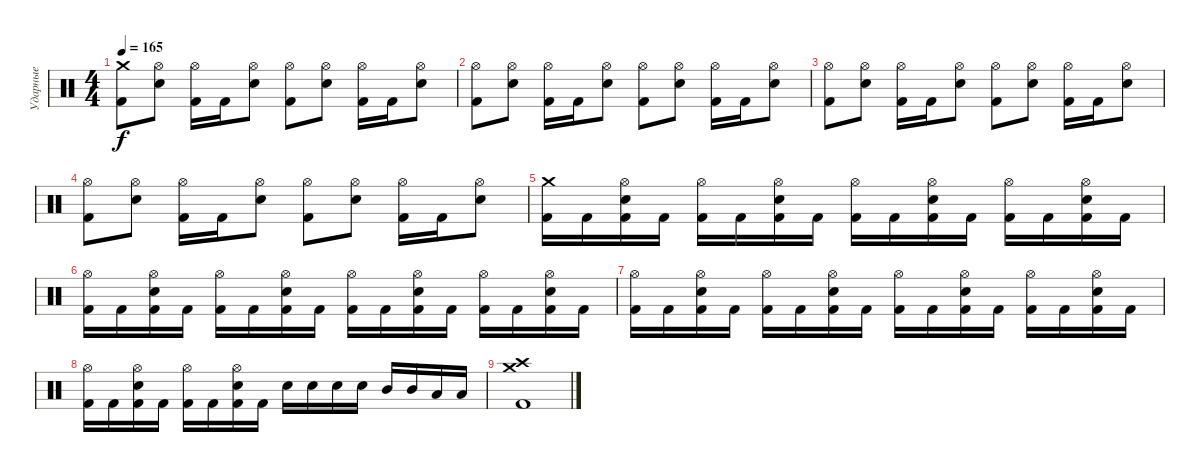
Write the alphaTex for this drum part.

\track ("Ударные" "Ударные") {instrument percussion}
\staff {score}
\articulation defaults
\ts (4 4)
\tempo 165
\clef neutral
\ks c
("Crash medium (hit)" "Kick (hit) 2").8{dy f} ("Hi-Hat (open)" "Electric Snare (hit)").8 ("Hi-Hat (open)" "Kick (hit) 2").16 "Kick (hit) 2".16 ("Hi-Hat (open)" "Electric Snare (hit)").8 ("Hi-Hat (open)" "Kick (hit) 2").8 ("Hi-Hat (open)" "Electric Snare (hit)").8 ("Hi-Hat (open)" "Kick (hit) 2").16 "Kick (hit) 2".16 ("Hi-Hat (open)" "Electric Snare (hit)").8 |
("Hi-Hat (open)" "Kick (hit) 2").8 ("Hi-Hat (open)" "Electric Snare (hit)").8 ("Hi-Hat (open)" "Kick (hit) 2").16 "Kick (hit) 2".16 ("Hi-Hat (open)" "Electric Snare (hit)").8 ("Hi-Hat (open)" "Kick (hit) 2").8 ("Hi-Hat (open)" "Electric Snare (hit)").8 ("Hi-Hat (open)" "Kick (hit) 2").16 "Kick (hit) 2".16 ("Hi-Hat (open)" "Electric Snare (hit)").8 |
("Hi-Hat (open)" "Kick (hit) 2").8 ("Hi-Hat (open)" "Electric Snare (hit)").8 ("Hi-Hat (open)" "Kick (hit) 2").16 "Kick (hit) 2".16 ("Hi-Hat (open)" "Electric Snare (hit)").8 ("Hi-Hat (open)" "Kick (hit) 2").8 ("Hi-Hat (open)" "Electric Snare (hit)").8 ("Hi-Hat (open)" "Kick (hit) 2").16 "Kick (hit) 2".16 ("Hi-Hat (open)" "Electric Snare (hit)").8 |
("Hi-Hat (open)" "Kick (hit) 2").8 ("Hi-Hat (open)" "Electric Snare (hit)").8 ("Hi-Hat (open)" "Kick (hit) 2").16 "Kick (hit) 2".16 ("Hi-Hat (open)" "Electric Snare (hit)").8 ("Hi-Hat (open)" "Kick (hit) 2").8 ("Hi-Hat (open)" "Electric Snare (hit)").8 ("Hi-Hat (open)" "Kick (hit) 2").16 "Kick (hit) 2".16 ("Hi-Hat (open)" "Electric Snare (hit)").8 |
("Kick (hit) 2" "Crash medium (hit)").16 "Kick (hit) 2".16 ("Kick (hit) 2" "Electric Snare (hit)" "Hi-Hat (open)").16 "Kick (hit) 2".16 ("Kick (hit) 2" "Hi-Hat (open)").16 "Kick (hit) 2".16 ("Kick (hit) 2" "Electric Snare (hit)" "Hi-Hat (open)").16 "Kick (hit) 2".16 ("Kick (hit) 2" "Hi-Hat (open)").16 "Kick (hit) 2".16 ("Kick (hit) 2" "Electric Snare (hit)" "Hi-Hat (open)").16 "Kick (hit) 2".16 ("Kick (hit) 2" "Hi-Hat (open)").16 "Kick (hit) 2".16 ("Kick (hit) 2" "Electric Snare (hit)" "Hi-Hat (open)").16 "Kick (hit) 2".16 |
("Kick (hit) 2" "Hi-Hat (open)").16 "Kick (hit) 2".16 ("Kick (hit) 2" "Electric Snare (hit)" "Hi-Hat (open)").16 "Kick (hit) 2".16 ("Kick (hit) 2" "Hi-Hat (open)").16 "Kick (hit) 2".16 ("Kick (hit) 2" "Electric Snare (hit)" "Hi-Hat (open)").16 "Kick (hit) 2".16 ("Kick (hit) 2" "Hi-Hat (open)").16 "Kick (hit) 2".16 ("Kick (hit) 2" "Electric Snare (hit)" "Hi-Hat (open)").16 "Kick (hit) 2".16 ("Kick (hit) 2" "Hi-Hat (open)").16 "Kick (hit) 2".16 ("Kick (hit) 2" "Electric Snare (hit)" "Hi-Hat (open)").16 "Kick (hit) 2".16 |
("Kick (hit) 2" "Hi-Hat (open)").16 "Kick (hit) 2".16 ("Kick (hit) 2" "Electric Snare (hit)" "Hi-Hat (open)").16 "Kick (hit) 2".16 ("Kick (hit) 2" "Hi-Hat (open)").16 "Kick (hit) 2".16 ("Kick (hit) 2" "Electric Snare (hit)" "Hi-Hat (open)").16 "Kick (hit) 2".16 ("Kick (hit) 2" "Hi-Hat (open)").16 "Kick (hit) 2".16 ("Kick (hit) 2" "Electric Snare (hit)" "Hi-Hat (open)").16 "Kick (hit) 2".16 ("Kick (hit) 2" "Hi-Hat (open)").16 "Kick (hit) 2".16 ("Kick (hit) 2" "Electric Snare (hit)" "Hi-Hat (open)").16 "Kick (hit) 2".16 |
("Kick (hit) 2" "Hi-Hat (open)").16 "Kick (hit) 2".16 ("Kick (hit) 2" "Electric Snare (hit)" "Hi-Hat (open)").16 "Kick (hit) 2".16 ("Kick (hit) 2" "Hi-Hat (open)").16 "Kick (hit) 2".16 ("Kick (hit) 2" "Electric Snare (hit)" "Hi-Hat (open)").16 "Kick (hit) 2".16 "Electric Snare (hit)".16 "Electric Snare (hit)".16 "Electric Snare (hit)".16 "Electric Snare (hit)".16 "Mid Tom (hit)".16 "Mid Tom (hit)".16 "Low Tom (hit)".16 "Low Tom (hit)".16 |
("Kick (hit) 2" "Crash high (hit)" "Crash medium (hit)").1
